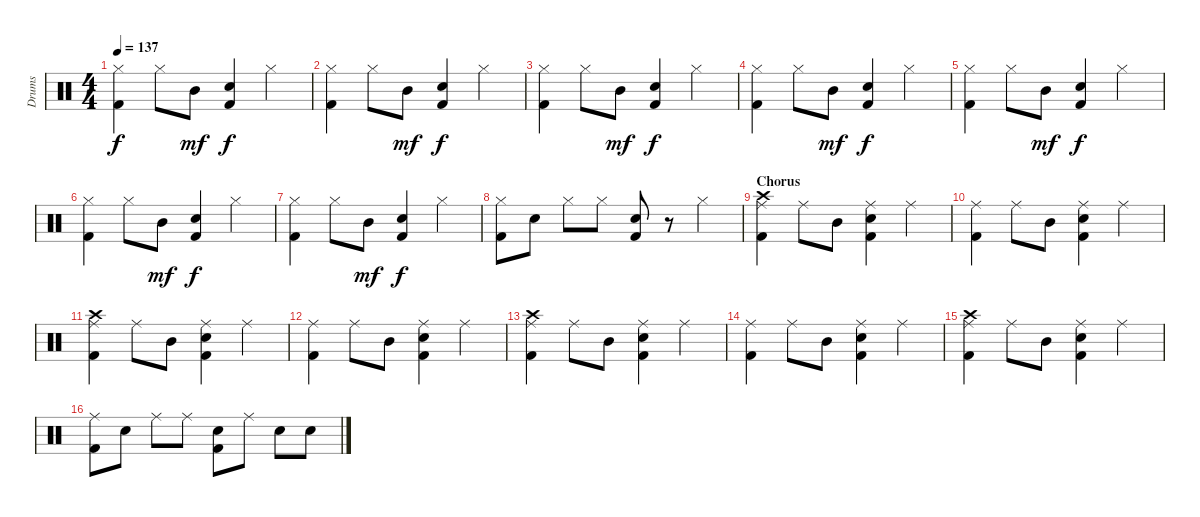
\track ("Drums" "Drums") {instrument percussion}
\staff {score}
\articulation defaults
\ts (4 4)
\tempo 137
\clef neutral
\ks c
("Hi-Hat (closed)" "Kick (hit) 2").4{dy f} "Hi-Hat (closed)".8 "Mid Tom (hit)".8{dy mf} ("Electric Snare (hit)" "Kick (hit) 2").4{dy f} "Hi-Hat (closed)".4 |
("Hi-Hat (closed)" "Kick (hit) 2").4 "Hi-Hat (closed)".8 "Mid Tom (hit)".8{dy mf} ("Electric Snare (hit)" "Kick (hit) 2").4{dy f} "Hi-Hat (closed)".4 |
("Hi-Hat (closed)" "Kick (hit) 2").4 "Hi-Hat (closed)".8 "Mid Tom (hit)".8{dy mf} ("Electric Snare (hit)" "Kick (hit) 2").4{dy f} "Hi-Hat (closed)".4 |
("Hi-Hat (closed)" "Kick (hit) 2").4 "Hi-Hat (closed)".8 "Mid Tom (hit)".8{dy mf} ("Electric Snare (hit)" "Kick (hit) 2").4{dy f} "Hi-Hat (closed)".4 |
("Hi-Hat (closed)" "Kick (hit) 2").4 "Hi-Hat (closed)".8 "Mid Tom (hit)".8{dy mf} ("Electric Snare (hit)" "Kick (hit) 2").4{dy f} "Hi-Hat (closed)".4 |
("Hi-Hat (closed)" "Kick (hit) 2").4 "Hi-Hat (closed)".8 "Mid Tom (hit)".8{dy mf} ("Electric Snare (hit)" "Kick (hit) 2").4{dy f} "Hi-Hat (closed)".4 |
("Hi-Hat (closed)" "Kick (hit) 2").4 "Hi-Hat (closed)".8 "Mid Tom (hit)".8{dy mf} ("Electric Snare (hit)" "Kick (hit) 2").4{dy f} "Hi-Hat (closed)".4 |
("Hi-Hat (closed)" "Kick (hit) 2").8 "Electric Snare (hit)".8 "Hi-Hat (closed)".8 "Hi-Hat (closed)".8 ("Electric Snare (hit)" "Kick (hit) 2").8 r.8 "Hi-Hat (closed)".4 |
\section ("" "Chorus")
("Crash high (hit)" "Ride (middle)" "Kick (hit) 2").4 "Ride (middle)".8 "Mid Tom (hit)".8 ("Ride (middle)" "Electric Snare (hit)" "Kick (hit) 2").4 "Ride (middle)".4 |
("Ride (middle)" "Kick (hit) 2").4 "Ride (middle)".8 "Mid Tom (hit)".8 ("Ride (middle)" "Electric Snare (hit)" "Kick (hit) 2").4 "Ride (middle)".4 |
("Crash high (hit)" "Ride (middle)" "Kick (hit) 2").4 "Ride (middle)".8 "Mid Tom (hit)".8 ("Ride (middle)" "Electric Snare (hit)" "Kick (hit) 2").4 "Ride (middle)".4 |
("Ride (middle)" "Kick (hit) 2").4 "Ride (middle)".8 "Mid Tom (hit)".8 ("Ride (middle)" "Electric Snare (hit)" "Kick (hit) 2").4 "Ride (middle)".4 |
("Crash high (hit)" "Ride (middle)" "Kick (hit) 2").4 "Ride (middle)".8 "Mid Tom (hit)".8 ("Ride (middle)" "Electric Snare (hit)" "Kick (hit) 2").4 "Ride (middle)".4 |
("Ride (middle)" "Kick (hit) 2").4 "Ride (middle)".8 "Mid Tom (hit)".8 ("Ride (middle)" "Electric Snare (hit)" "Kick (hit) 2").4 "Ride (middle)".4 |
("Crash high (hit)" "Ride (middle)" "Kick (hit) 2").4 "Ride (middle)".8 "Mid Tom (hit)".8 ("Ride (middle)" "Electric Snare (hit)" "Kick (hit) 2").4 "Ride (middle)".4 |
("Ride (middle)" "Kick (hit) 2").8 "Electric Snare (hit)".8 "Ride (middle)".8 "Ride (middle)".8 ("Electric Snare (hit)" "Kick (hit) 2").8 "Ride (middle)".8 "Electric Snare (hit)".8 "Electric Snare (hit)".8
